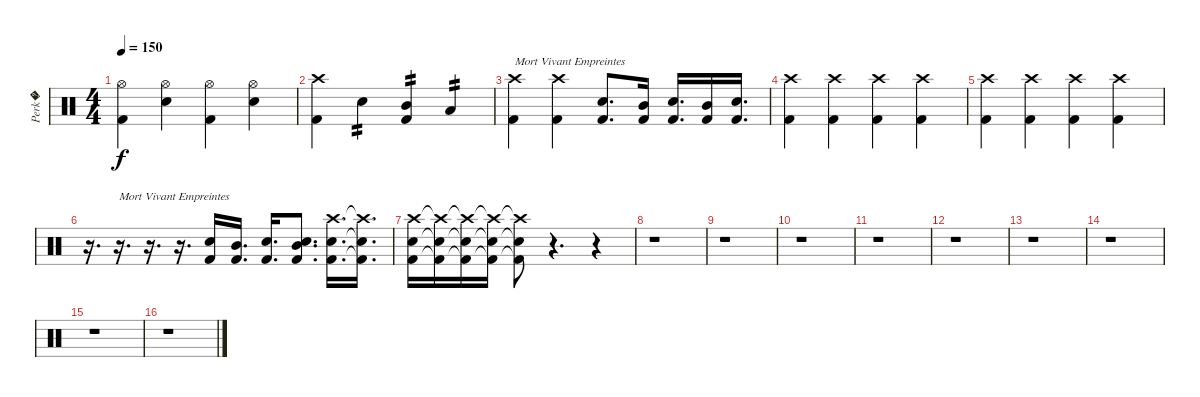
\track ("Perk�" "Perk�") {instrument percussion}
\staff {score}
\articulation defaults
\ts (4 4)
\tempo 150
\clef neutral
\ks c
("Hi-Hat (open)" "Kick (hit) 2").4{dy f} ("Hi-Hat (open)" "Snare (hit) 2").4 ("Hi-Hat (open)" "Kick (hit) 2").4 ("Hi-Hat (open)" "Snare (hit) 2").4 |
("Crash high (hit)" "Kick (hit) 2").4 "Snare (hit) 2".4{tp 2} ("Mid Tom (hit)" "Kick (hit) 2").4{tp 2} "Low Tom (hit)".4{tp 2} |
("Kick (hit) 2" "Crash high (hit)").4{txt "Mort Vivant Empreintes"} ("Kick (hit) 2" "Crash high (hit)").4 ("Kick (hit) 2" "Snare (hit) 2").8{d} ("Kick (hit) 2" "Mid Tom (hit)").16 ("Kick (hit) 2" "Snare (hit) 2").16{d} ("Kick (hit) 2" "Mid Tom (hit)").16 ("Kick (hit) 2" "Snare (hit) 2").16{d} |
("Kick (hit) 2" "Crash high (hit)").4 ("Kick (hit) 2" "Crash high (hit)").4 ("Kick (hit) 2" "Crash high (hit)").4 ("Kick (hit) 2" "Crash high (hit)").4 |
("Kick (hit) 2" "Crash high (hit)").4 ("Kick (hit) 2" "Crash high (hit)").4 ("Kick (hit) 2" "Crash high (hit)").4 ("Kick (hit) 2" "Crash high (hit)").4 |
r.16{d} r.16{d txt "Mort Vivant Empreintes"} r.16{d} r.16{d} ("Kick (hit) 2" "Snare (hit) 2").16 ("Kick (hit) 2" "Mid Tom (hit)").16{d} ("Kick (hit) 2" "Snare (hit) 2").16{d} ("Kick (hit) 2" "Snare (hit) 2" "Mid Tom (hit)").8{d} ("Kick (hit) 2" "Snare (hit) 2" "Crash high (hit)").16{d} ("Kick (hit) 2"{t} "Snare (hit) 2"{t} "Crash high (hit)"{t}).16{d} |
("Kick (hit) 2" "Snare (hit) 2" "Crash high (hit)").16 ("Kick (hit) 2"{t} "Snare (hit) 2"{t} "Crash high (hit)"{t}).16 ("Kick (hit) 2"{t} "Snare (hit) 2"{t} "Crash high (hit)"{t}).16 ("Kick (hit) 2"{t} "Snare (hit) 2"{t} "Crash high (hit)"{t}).16 ("Kick (hit) 2"{t} "Snare (hit) 2"{t} "Crash high (hit)"{t}).8 r.4{d} r.4 |
r.1 |
r.1 |
r.1 |
r.1 |
r.1 |
r.1 |
r.1 |
r.1 |
r.1
